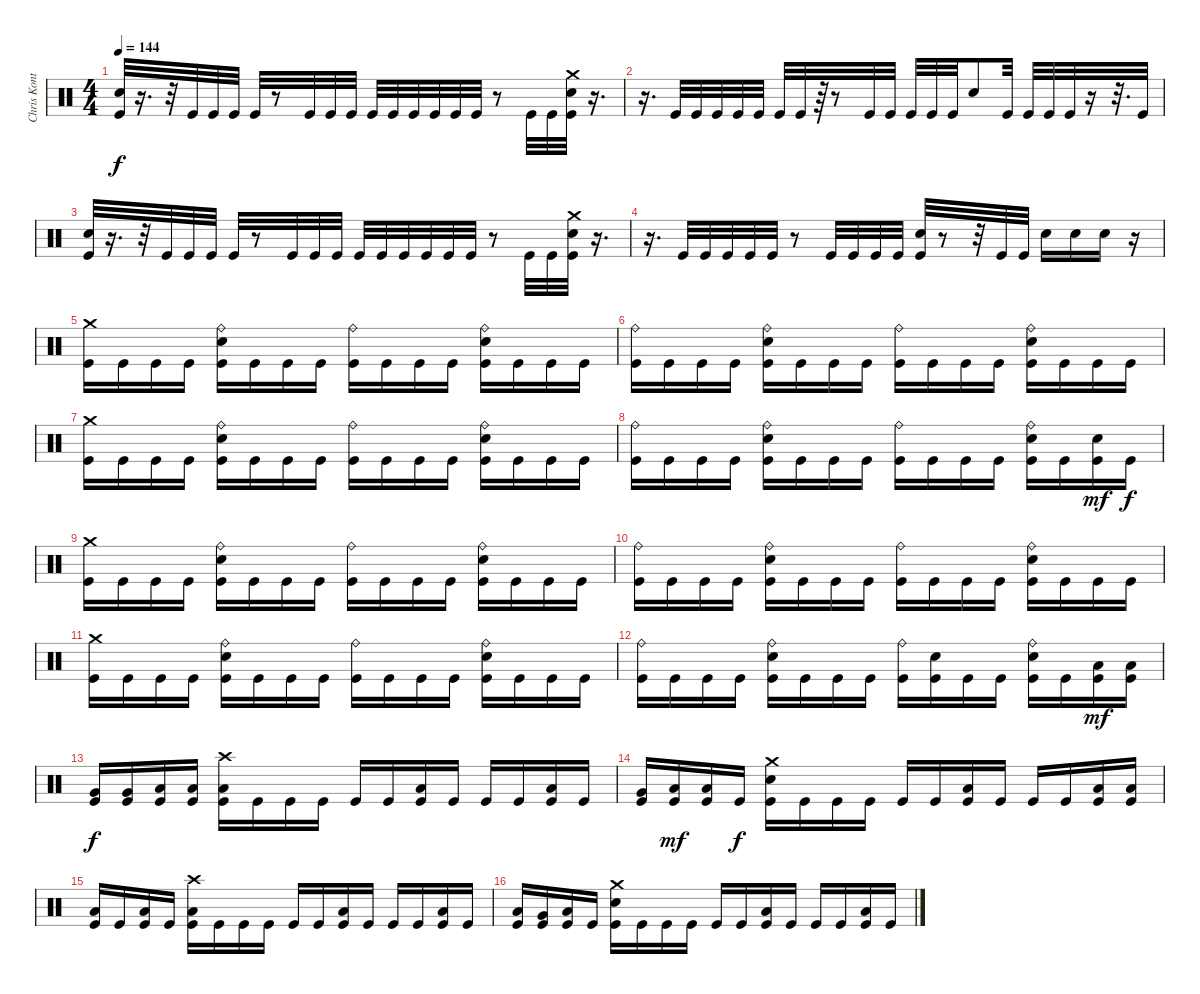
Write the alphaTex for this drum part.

\track ("Chris Kontos" "Chris Kont") {instrument percussion}
\staff {score}
\articulation defaults
\ts (4 4)
\tempo 144
\clef neutral
\ks c
("Electric Snare (hit)" "Kick (hit)").32{dy f} r.16{d} r.32 "Kick (hit)".32 "Kick (hit)".32 "Kick (hit)".32 "Kick (hit)".32 r.8 "Kick (hit)".32 "Kick (hit)".32 "Kick (hit)".32 "Kick (hit)".32 "Kick (hit)".32 "Kick (hit)".32 "Kick (hit)".32 "Kick (hit)".32 "Kick (hit)".32 r.8 "Kick (hit)".32 "Kick (hit)".32 ("Crash medium (hit)" "Electric Snare (hit)" "Kick (hit)").32 r.16{d} |
r.16{d} "Kick (hit)".32 "Kick (hit)".32 "Kick (hit)".32 "Kick (hit)".32 "Kick (hit)".32 "Kick (hit)".32 "Kick (hit)".32 r.64 r.8 "Kick (hit)".32 "Kick (hit)".32 "Kick (hit)".32 "Kick (hit)".32 "Kick (hit)".32 "Electric Snare (hit)".8 "Kick (hit)".32 "Kick (hit)".32 "Kick (hit)".32 "Kick (hit)".32 r.16 r.32{d} "Kick (hit)".32 |
("Electric Snare (hit)" "Kick (hit)").32 r.16{d} r.32 "Kick (hit)".32 "Kick (hit)".32 "Kick (hit)".32 "Kick (hit)".32 r.8 "Kick (hit)".32 "Kick (hit)".32 "Kick (hit)".32 "Kick (hit)".32 "Kick (hit)".32 "Kick (hit)".32 "Kick (hit)".32 "Kick (hit)".32 "Kick (hit)".32 r.8 "Kick (hit)".32 "Kick (hit)".32 ("Crash medium (hit)" "Electric Snare (hit)" "Kick (hit)").32 r.16{d} |
r.16{d} "Kick (hit)".32 "Kick (hit)".32 "Kick (hit)".32 "Kick (hit)".32 "Kick (hit)".32 r.8 "Kick (hit)".32 "Kick (hit)".32 "Kick (hit)".32 "Kick (hit)".32 ("Electric Snare (hit)" "Kick (hit)").32 r.8 r.32 "Kick (hit)".32 "Kick (hit)".32 "Electric Snare (hit)".16 "Electric Snare (hit)".16 "Electric Snare (hit)".16 r.16 |
("Crash medium (hit)" "Kick (hit)").16 "Kick (hit)".16 "Kick (hit)".16 "Kick (hit)".16 ("Ride (bell)" "Electric Snare (hit)" "Kick (hit)").16 "Kick (hit)".16 "Kick (hit)".16 "Kick (hit)".16 ("Ride (bell)" "Kick (hit)").16 "Kick (hit)".16 "Kick (hit)".16 "Kick (hit)".16 ("Ride (bell)" "Electric Snare (hit)" "Kick (hit)").16 "Kick (hit)".16 "Kick (hit)".16 "Kick (hit)".16 |
("Ride (bell)" "Kick (hit)").16 "Kick (hit)".16 "Kick (hit)".16 "Kick (hit)".16 ("Ride (bell)" "Electric Snare (hit)" "Kick (hit)").16 "Kick (hit)".16 "Kick (hit)".16 "Kick (hit)".16 ("Ride (bell)" "Kick (hit)").16 "Kick (hit)".16 "Kick (hit)".16 "Kick (hit)".16 ("Ride (bell)" "Electric Snare (hit)" "Kick (hit)").16 "Kick (hit)".16 "Kick (hit)".16 "Kick (hit)".16 |
("Crash medium (hit)" "Kick (hit)").16 "Kick (hit)".16 "Kick (hit)".16 "Kick (hit)".16 ("Ride (bell)" "Electric Snare (hit)" "Kick (hit)").16 "Kick (hit)".16 "Kick (hit)".16 "Kick (hit)".16 ("Ride (bell)" "Kick (hit)").16 "Kick (hit)".16 "Kick (hit)".16 "Kick (hit)".16 ("Ride (bell)" "Electric Snare (hit)" "Kick (hit)").16 "Kick (hit)".16 "Kick (hit)".16 "Kick (hit)".16 |
("Ride (bell)" "Kick (hit)").16 "Kick (hit)".16 "Kick (hit)".16 "Kick (hit)".16 ("Ride (bell)" "Electric Snare (hit)" "Kick (hit)").16 "Kick (hit)".16 "Kick (hit)".16 "Kick (hit)".16 ("Ride (bell)" "Kick (hit)").16 "Kick (hit)".16 "Kick (hit)".16 "Kick (hit)".16 ("Ride (bell)" "Electric Snare (hit)" "Kick (hit)").16 "Kick (hit)".16 ("Electric Snare (hit)" "Kick (hit)").16{dy mf} "Kick (hit)".16{dy f} |
("Crash medium (hit)" "Kick (hit)").16 "Kick (hit)".16 "Kick (hit)".16 "Kick (hit)".16 ("Ride (bell)" "Electric Snare (hit)" "Kick (hit)").16 "Kick (hit)".16 "Kick (hit)".16 "Kick (hit)".16 ("Ride (bell)" "Kick (hit)").16 "Kick (hit)".16 "Kick (hit)".16 "Kick (hit)".16 ("Ride (bell)" "Electric Snare (hit)" "Kick (hit)").16 "Kick (hit)".16 "Kick (hit)".16 "Kick (hit)".16 |
("Ride (bell)" "Kick (hit)").16 "Kick (hit)".16 "Kick (hit)".16 "Kick (hit)".16 ("Ride (bell)" "Electric Snare (hit)" "Kick (hit)").16 "Kick (hit)".16 "Kick (hit)".16 "Kick (hit)".16 ("Ride (bell)" "Kick (hit)").16 "Kick (hit)".16 "Kick (hit)".16 "Kick (hit)".16 ("Ride (bell)" "Electric Snare (hit)" "Kick (hit)").16 "Kick (hit)".16 "Kick (hit)".16 "Kick (hit)".16 |
("Crash medium (hit)" "Kick (hit)").16 "Kick (hit)".16 "Kick (hit)".16 "Kick (hit)".16 ("Ride (bell)" "Electric Snare (hit)" "Kick (hit)").16 "Kick (hit)".16 "Kick (hit)".16 "Kick (hit)".16 ("Ride (bell)" "Kick (hit)").16 "Kick (hit)".16 "Kick (hit)".16 "Kick (hit)".16 ("Ride (bell)" "Electric Snare (hit)" "Kick (hit)").16 "Kick (hit)".16 "Kick (hit)".16 "Kick (hit)".16 |
("Ride (bell)" "Kick (hit)").16 "Kick (hit)".16 "Kick (hit)".16 "Kick (hit)".16 ("Ride (bell)" "Electric Snare (hit)" "Kick (hit)").16 "Kick (hit)".16 "Kick (hit)".16 "Kick (hit)".16 ("Ride (bell)" "Kick (hit)").16 ("Electric Snare (hit)" "Kick (hit)").16 "Kick (hit)".16 "Kick (hit)".16 ("Ride (bell)" "Electric Snare (hit)" "Kick (hit)").16 "Kick (hit)".16 ("Low Tom (hit)" "Kick (hit)").16{dy mf} ("Low Tom (hit)" "Kick (hit)").16 |
("Very Low Tom (hit)" "Kick (hit)").16{dy f} ("Very Low Tom (hit)" "Kick (hit)").16 ("Low Floor Tom (hit)" "Kick (hit)").16 ("Low Floor Tom (hit)" "Kick (hit)").16 ("Crash high (hit)" "Low Floor Tom (hit)" "Kick (hit)").16 "Kick (hit)".16 "Kick (hit)".16 "Kick (hit)".16 "Kick (hit)".16 "Kick (hit)".16 ("Low Floor Tom (hit)" "Kick (hit)").16 "Kick (hit)".16 "Kick (hit)".16 "Kick (hit)".16 ("Low Floor Tom (hit)" "Kick (hit)").16 "Kick (hit)".16 |
("Very Low Tom (hit)" "Kick (hit)").16 ("Low Floor Tom (hit)" "Kick (hit)").16{dy mf} ("Low Floor Tom (hit)" "Kick (hit)").16 "Kick (hit)".16{dy f} ("Crash medium (hit)" "Electric Snare (hit)" "Kick (hit)").16 "Kick (hit)".16 "Kick (hit)".16 "Kick (hit)".16 "Kick (hit)".16 "Kick (hit)".16 ("Low Floor Tom (hit)" "Kick (hit)").16 "Kick (hit)".16 "Kick (hit)".16 "Kick (hit)".16 ("Low Floor Tom (hit)" "Kick (hit)").16 ("Low Floor Tom (hit)" "Kick (hit)").16 |
("Low Floor Tom (hit)" "Kick (hit)").16 "Kick (hit)".16 ("Low Floor Tom (hit)" "Kick (hit)").16 "Kick (hit)".16 ("Crash high (hit)" "Low Floor Tom (hit)" "Kick (hit)").16 "Kick (hit)".16 "Kick (hit)".16 "Kick (hit)".16 "Kick (hit)".16 "Kick (hit)".16 ("Low Floor Tom (hit)" "Kick (hit)").16 "Kick (hit)".16 "Kick (hit)".16 "Kick (hit)".16 ("Low Floor Tom (hit)" "Kick (hit)").16 "Kick (hit)".16 |
("Low Tom (hit)" "Kick (hit)").16 ("Very Low Tom (hit)" "Kick (hit)").16 ("Low Floor Tom (hit)" "Kick (hit)").16 "Kick (hit)".16 ("Crash medium (hit)" "Electric Snare (hit)" "Kick (hit)").16 "Kick (hit)".16 "Kick (hit)".16 "Kick (hit)".16 "Kick (hit)".16 "Kick (hit)".16 ("Low Floor Tom (hit)" "Kick (hit)").16 "Kick (hit)".16 "Kick (hit)".16 "Kick (hit)".16 ("Low Floor Tom (hit)" "Kick (hit)").16 "Kick (hit)".16
